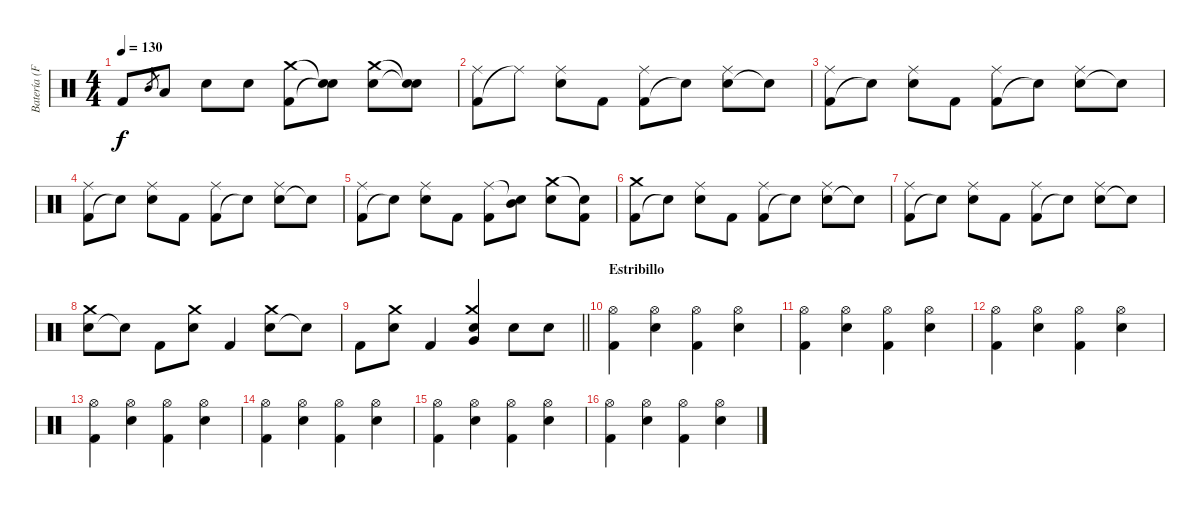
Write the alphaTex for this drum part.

\track ("Batería (F. Scarcella)" "Batería (F") {instrument percussion}
\staff {score}
\articulation defaults
\ts (4 4)
\tempo 130
\clef neutral
\ks c "Kick (hit) 2".8{dy f} "Mid Tom (hit)".8{gr} "Low Tom (hit)".8 "Snare (hit) 2".8 "Snare (hit) 2".8
("Kick (hit) 2" "Crash medium (hit)").8 ("Snare (hit) 2"{t} "Snare (hit)"{t}).8 ("Snare (hit) 2" "Crash medium (hit)").8 ("Snare (hit)"{t} "Snare (hit)"{t}).8 |
("Kick (hit) 2" "Ride (middle)").8 "Ride (middle)"{t}.8 ("Snare (hit) 2" "Ride (middle)").8 "Kick (hit) 2".8 ("Kick (hit) 2" "Ride (middle)").8 "Snare (hit)"{t}.8 ("Snare (hit) 2" "Ride (middle)").8 "Snare (hit)"{t}.8 |
("Kick (hit) 2" "Ride (middle)").8 "Snare (hit)"{t}.8 ("Snare (hit) 2" "Ride (middle)").8 "Kick (hit) 2".8 ("Kick (hit) 2" "Ride (middle)").8 "Snare (hit)"{t}.8 ("Snare (hit) 2" "Ride (middle)").8 "Snare (hit)"{t}.8 |
("Kick (hit) 2" "Ride (middle)").8 "Snare (hit)"{t}.8 ("Snare (hit) 2" "Ride (middle)").8 "Kick (hit) 2".8 ("Kick (hit) 2" "Ride (middle)").8 "Snare (hit)"{t}.8 ("Snare (hit) 2" "Ride (middle)").8 "Snare (hit)"{t}.8 |
("Kick (hit) 2" "Ride (middle)").8 "Snare (hit)"{t}.8 ("Snare (hit) 2" "Ride (middle)").8 "Kick (hit) 2".8 ("Kick (hit) 2" "Ride (middle)").8 ("Mid Tom (hit)" "Snare (hit)"{t}).8 ("Snare (hit) 2" "Crash medium (hit)").8 ("Kick (hit) 2" "Snare (hit)"{t}).8 |
("Kick (hit) 2" "Crash medium (hit)").8 "Snare (hit)"{t}.8 ("Snare (hit) 2" "Ride (middle)").8 "Kick (hit) 2".8 ("Kick (hit) 2" "Ride (middle)").8 "Snare (hit)"{t}.8 ("Snare (hit) 2" "Ride (middle)").8 "Snare (hit)"{t}.8 |
("Kick (hit) 2" "Ride (middle)").8 "Snare (hit)"{t}.8 ("Snare (hit) 2" "Ride (middle)").8 "Kick (hit) 2".8 ("Kick (hit) 2" "Ride (middle)").8 "Snare (hit)"{t}.8 ("Snare (hit) 2" "Ride (middle)").8 "Snare (hit)"{t}.8 |
("Snare (hit) 2" "Crash medium (hit)").8 "Snare (hit)"{t}.8 "Kick (hit) 2".8 ("Snare (hit) 2" "Crash medium (hit)").8 "Kick (hit) 2".4 ("Snare (hit) 2" "Crash medium (hit)").8 "Snare (hit)"{t}.8 |
\barLineRight lightlight "Kick (hit) 2".8
("Snare (hit) 2" "Crash medium (hit)").8 "Kick (hit) 2".4 ("Snare (hit) 2" "Very Low Tom (hit)" "Crash medium (hit)").4 "Snare (hit) 2".8 "Snare (hit) 2".8 |
\section ("" "Estribillo")
("Kick (hit) 2" "Hi-Hat (open)").4 ("Snare (hit) 2" "Hi-Hat (open)").4 ("Kick (hit) 2" "Hi-Hat (open)").4 ("Snare (hit) 2" "Hi-Hat (open)").4 |
("Kick (hit) 2" "Hi-Hat (open)").4 ("Snare (hit) 2" "Hi-Hat (open)").4 ("Kick (hit) 2" "Hi-Hat (open)").4 ("Snare (hit) 2" "Hi-Hat (open)").4 |
("Kick (hit) 2" "Hi-Hat (open)").4 ("Snare (hit) 2" "Hi-Hat (open)").4 ("Kick (hit) 2" "Hi-Hat (open)").4 ("Snare (hit) 2" "Hi-Hat (open)").4 |
("Kick (hit) 2" "Hi-Hat (open)").4 ("Snare (hit) 2" "Hi-Hat (open)").4 ("Kick (hit) 2" "Hi-Hat (open)").4 ("Snare (hit) 2" "Hi-Hat (open)").4 |
("Kick (hit) 2" "Hi-Hat (open)").4 ("Snare (hit) 2" "Hi-Hat (open)").4 ("Kick (hit) 2" "Hi-Hat (open)").4 ("Snare (hit) 2" "Hi-Hat (open)").4 |
("Kick (hit) 2" "Hi-Hat (open)").4 ("Snare (hit) 2" "Hi-Hat (open)").4 ("Kick (hit) 2" "Hi-Hat (open)").4 ("Snare (hit) 2" "Hi-Hat (open)").4 |
("Kick (hit) 2" "Hi-Hat (open)").4 ("Snare (hit) 2" "Hi-Hat (open)").4 ("Kick (hit) 2" "Hi-Hat (open)").4 ("Snare (hit) 2" "Hi-Hat (open)").4
